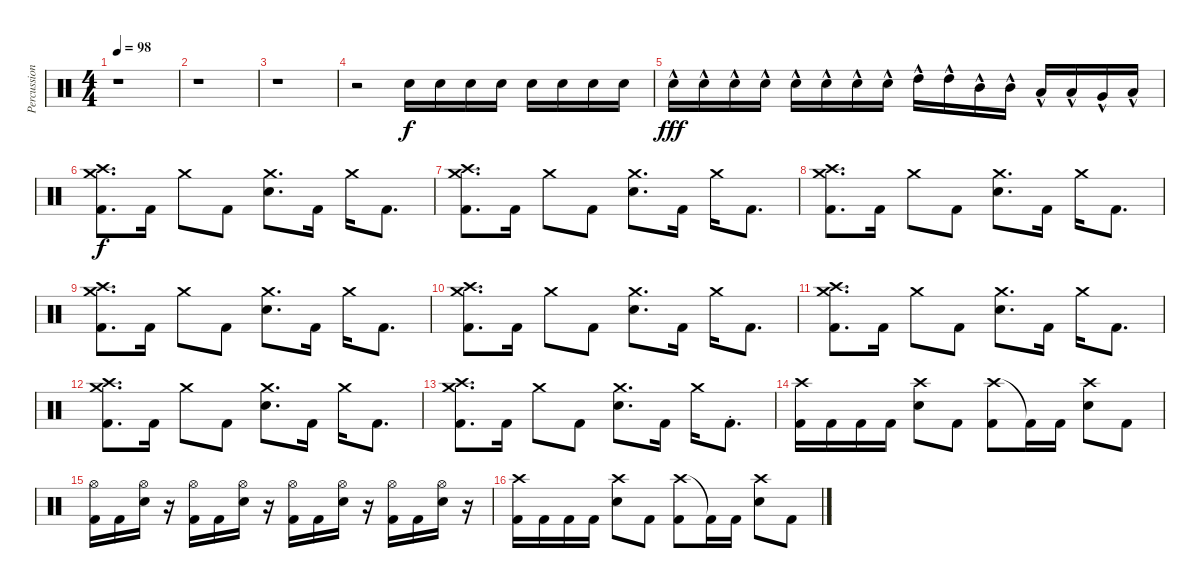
\track ("Percussion" "Percussion") {instrument percussion}
\staff {score}
\articulation defaults
\ts (4 4)
\tempo 98
\clef neutral
\ks c
r.1{dy fff} |
r.1 |
r.1 |
r.2 "Snare (hit) 2".16{dy f} "Snare (hit) 2".16 "Snare (hit) 2".16 "Snare (hit) 2".16 "Snare (hit) 2".16 "Snare (hit) 2".16 "Snare (hit) 2".16 "Snare (hit) 2".16 |
"Snare (hit) 2"{hac}.16{dy fff} "Snare (hit) 2"{hac}.16 "Snare (hit) 2"{hac}.16 "Snare (hit) 2"{hac}.16 "Snare (hit) 2"{hac}.16 "Snare (hit) 2"{hac}.16 "Snare (hit) 2"{hac}.16 "Snare (hit) 2"{hac}.16 "High Tom (hit)"{hac}.16 "High Tom (hit)"{hac}.16 "Mid Tom (hit)"{hac}.16 "Mid Tom (hit)"{hac}.16 "Low Tom (hit)"{hac}.16 "Low Tom (hit)"{hac}.16 "Very Low Tom (hit)"{hac}.16 "Low Floor Tom (hit)"{hac}.16 |
("Crash high (hit)" "Kick (hit) 2" "Crash medium (hit)").8{d dy f} "Kick (hit) 2".16 "Crash medium (hit)".8 "Kick (hit) 2".8 ("Snare (hit) 2" "Crash medium (hit)").8{d} "Kick (hit) 2".16 "Crash medium (hit)".16 "Kick (hit) 2".8{d} |
("Crash high (hit)" "Kick (hit) 2" "Crash medium (hit)").8{d} "Kick (hit) 2".16 "Crash medium (hit)".8 "Kick (hit) 2".8 ("Snare (hit) 2" "Crash medium (hit)").8{d} "Kick (hit) 2".16 "Crash medium (hit)".16 "Kick (hit) 2".8{d} |
("Crash high (hit)" "Kick (hit) 2" "Crash medium (hit)").8{d} "Kick (hit) 2".16 "Crash medium (hit)".8 "Kick (hit) 2".8 ("Snare (hit) 2" "Crash medium (hit)").8{d} "Kick (hit) 2".16 "Crash medium (hit)".16 "Kick (hit) 2".8{d} |
("Crash high (hit)" "Kick (hit) 2" "Crash medium (hit)").8{d} "Kick (hit) 2".16 "Crash medium (hit)".8 "Kick (hit) 2".8 ("Snare (hit) 2" "Crash medium (hit)").8{d} "Kick (hit) 2".16 "Crash medium (hit)".16 "Kick (hit) 2".8{d} |
("Crash high (hit)" "Kick (hit) 2" "Crash medium (hit)").8{d} "Kick (hit) 2".16 "Crash medium (hit)".8 "Kick (hit) 2".8 ("Snare (hit) 2" "Crash medium (hit)").8{d} "Kick (hit) 2".16 "Crash medium (hit)".16 "Kick (hit) 2".8{d} |
("Crash high (hit)" "Kick (hit) 2" "Crash medium (hit)").8{d} "Kick (hit) 2".16 "Crash medium (hit)".8 "Kick (hit) 2".8 ("Snare (hit) 2" "Crash medium (hit)").8{d} "Kick (hit) 2".16 "Crash medium (hit)".16 "Kick (hit) 2".8{d} |
("Crash high (hit)" "Kick (hit) 2" "Crash medium (hit)").8{d} "Kick (hit) 2".16 "Crash medium (hit)".8 "Kick (hit) 2".8 ("Snare (hit) 2" "Crash medium (hit)").8{d} "Kick (hit) 2".16 "Crash medium (hit)".16 "Kick (hit) 2".8{d} |
("Crash high (hit)" "Kick (hit) 2" "Crash medium (hit)").8{d} "Kick (hit) 2".16 "Crash medium (hit)".8 "Kick (hit) 2".8 ("Snare (hit) 2" "Crash medium (hit)").8{d} "Kick (hit) 2".16 "Crash medium (hit)".16 "Kick (hit) 2"{st}.8{d} |
("Crash high (hit)" "Kick (hit) 2").16 "Kick (hit) 2".16 "Kick (hit) 2".16 "Kick (hit) 2".16 ("Crash high (hit)" "Snare (hit) 2").8 "Kick (hit) 2".8 ("Crash high (hit)" "Kick (hit) 2").8 "Kick (hit) 2"{t}.16 "Kick (hit) 2".16 ("Crash high (hit)" "Snare (hit) 2").8 "Kick (hit) 2".8 |
("Hi-Hat (open)" "Kick (hit) 2").16 "Kick (hit) 2".16 ("Hi-Hat (open)" "Snare (hit) 2").16 r.16 ("Hi-Hat (open)" "Kick (hit) 2").16 "Kick (hit) 2".16 ("Hi-Hat (open)" "Snare (hit) 2").16 r.16 ("Hi-Hat (open)" "Kick (hit) 2").16 "Kick (hit) 2".16 ("Hi-Hat (open)" "Snare (hit) 2").16 r.16 ("Hi-Hat (open)" "Kick (hit) 2").16 "Kick (hit) 2".16 ("Hi-Hat (open)" "Snare (hit) 2").16 r.16 |
("Crash high (hit)" "Kick (hit) 2").16 "Kick (hit) 2".16 "Kick (hit) 2".16 "Kick (hit) 2".16 ("Crash high (hit)" "Snare (hit) 2").8 "Kick (hit) 2".8 ("Crash high (hit)" "Kick (hit) 2").8 "Kick (hit) 2"{t}.16 "Kick (hit) 2".16 ("Crash high (hit)" "Snare (hit) 2").8 "Kick (hit) 2".8
